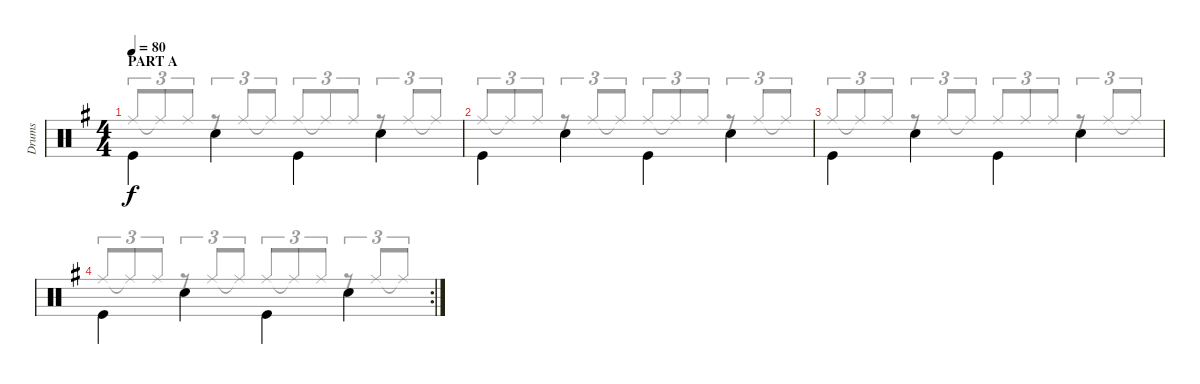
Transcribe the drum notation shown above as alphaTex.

\track ("Drums" "Drums") {instrument percussion}
\staff {score}
\articulation defaults
\voice
\ts (4 4)
\section ("" "PART A")
\tempo 80
\clef neutral
\ks g "Kick (hit)".4{dy f beam Down} "Snare (hit) 2".4{beam Down} "Kick (hit)".4{beam Down} "Snare (hit) 2".4{beam Down}
|
"Kick (hit)".4{beam Down} "Snare (hit) 2".4{beam Down} "Kick (hit)".4{beam Down} "Snare (hit) 2".4{beam Down} |
"Kick (hit)".4{beam Down} "Snare (hit) 2".4{beam Down} "Kick (hit)".4{beam Down} "Snare (hit) 2".4{beam Down} |
\rc 2 "Kick (hit)".4{beam Down} "Snare (hit) 2".4{beam Down} "Kick (hit)".4{beam Down} "Snare (hit) 2".4{beam Down}
\voice
\clef neutral
\ottava regular
\simile none
\ks g "Ride (middle)".8{tu (3 2) dy f beam Up} "Ride (middle)"{t}.8{tu (3 2) beam Up} "Ride (middle)".8{tu (3 2) beam Up}
r.8{tu (3 2) beam Up} "Ride (middle)".8{tu (3 2) beam Up} "Ride (middle)"{t}.8{tu (3 2) beam Up} "Ride (middle)".8{tu (3 2) beam Up} "Ride (middle)"{t}.8{tu (3 2) beam Up} "Ride (middle)".8{tu (3 2) beam Up} r.8{tu (3 2) beam Up} "Ride (middle)".8{tu (3 2) beam Up} "Ride (middle)"{t}.8{tu (3 2) beam Up} |
"Ride (middle)".8{tu (3 2) beam Up} "Ride (middle)"{t}.8{tu (3 2) beam Up} "Ride (middle)".8{tu (3 2) beam Up} r.8{tu (3 2) beam Up} "Ride (middle)".8{tu (3 2) beam Up} "Ride (middle)"{t}.8{tu (3 2) beam Up} "Ride (middle)".8{tu (3 2) beam Up} "Ride (middle)"{t}.8{tu (3 2) beam Up} "Ride (middle)".8{tu (3 2) beam Up} r.8{tu (3 2) beam Up} "Ride (middle)".8{tu (3 2) beam Up} "Ride (middle)"{t}.8{tu (3 2) beam Up} |
"Ride (middle)".8{tu (3 2) beam Up} "Ride (middle)"{t}.8{tu (3 2) beam Up} "Ride (middle)".8{tu (3 2) beam Up} r.8{tu (3 2) beam Up} "Ride (middle)".8{tu (3 2) beam Up} "Ride (middle)"{t}.8{tu (3 2) beam Up} "Ride (middle)".8{tu (3 2) beam Up} "Ride (middle)".8{tu (3 2) beam Up} "Ride (middle)".8{tu (3 2) beam Up} r.8{tu (3 2) beam Up} "Ride (middle)".8{tu (3 2) beam Up} "Ride (middle)"{t}.8{tu (3 2) beam Up} |
"Ride (middle)".8{tu (3 2) beam Up} "Ride (middle)"{t}.8{tu (3 2) beam Up} "Ride (middle)".8{tu (3 2) beam Up} r.8{tu (3 2) beam Up} "Ride (middle)".8{tu (3 2) beam Up} "Ride (middle)"{t}.8{tu (3 2) beam Up} "Ride (middle)".8{tu (3 2) beam Up} "Ride (middle)"{t}.8{tu (3 2) beam Up} "Ride (middle)".8{tu (3 2) beam Up} r.8{tu (3 2) beam Up} "Ride (middle)".8{tu (3 2) beam Up} "Ride (middle)"{t}.8{tu (3 2) beam Up}
